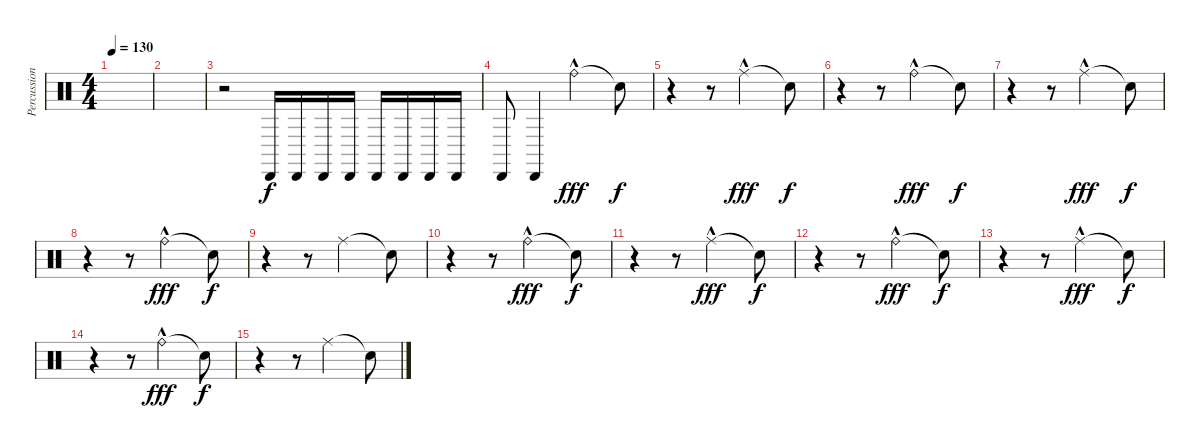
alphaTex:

\track ("Percussion" "Percussion") {instrument percussion}
\staff {score}
\articulation defaults
\ts (4 4)
\tempo 130
\clef neutral
\ks c
|
|
r.2 "Cabasa (hit)".16 "Cabasa (hit)".16 "Cabasa (hit)".16 "Cabasa (hit)".16 "Cabasa (hit)".16 "Cabasa (hit)".16 "Cabasa (hit)".16 "Cabasa (hit)".16 |
"Cabasa (hit)".8 "Cabasa (hit)".4 "Ride (bell)"{hac}.2{dy fff} "Snare (hit)"{t}.8{dy f} |
r.4 r.8 "Ride (middle)"{hac}.2{dy fff} "Snare (hit)"{t}.8{dy f} |
r.4 r.8 "Ride (bell)"{hac}.2{dy fff} "Snare (hit)"{t}.8{dy f} |
r.4 r.8 "Ride (middle)"{hac}.2{dy fff} "Snare (hit)"{t}.8{dy f} |
r.4 r.8 "Ride (bell)"{hac}.2{dy fff} "Snare (hit)"{t}.8{dy f} |
r.4 r.8 "Ride (middle)".2 "Snare (hit)"{t}.8 |
r.4 r.8 "Ride (bell)"{hac}.2{dy fff} "Snare (hit)"{t}.8{dy f} |
r.4 r.8 "Ride (middle)"{hac}.2{dy fff} "Snare (hit)"{t}.8{dy f} |
r.4 r.8 "Ride (bell)"{hac}.2{dy fff} "Snare (hit)"{t}.8{dy f} |
r.4 r.8 "Ride (middle)"{hac}.2{dy fff} "Snare (hit)"{t}.8{dy f} |
r.4 r.8 "Ride (bell)"{hac}.2{dy fff} "Snare (hit)"{t}.8{dy f} |
r.4 r.8 "Ride (middle)".2 "Snare (hit)"{t}.8
